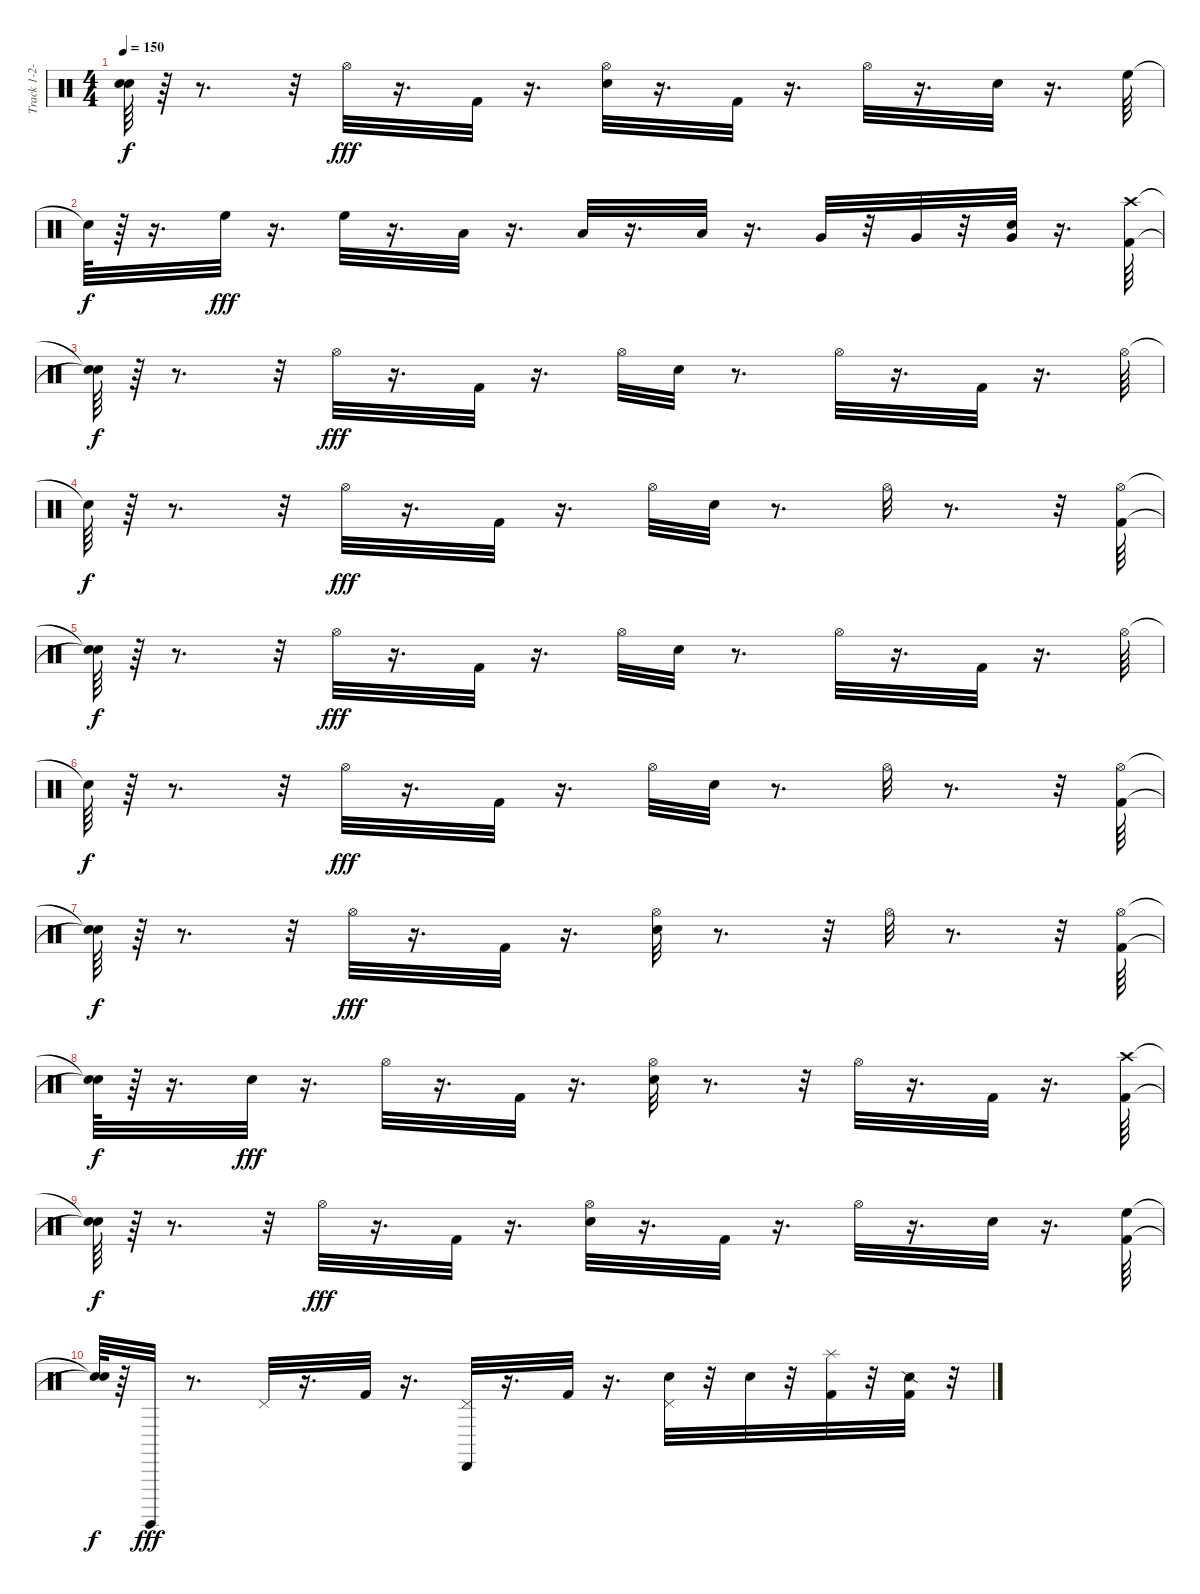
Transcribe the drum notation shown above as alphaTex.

\track ("Track 1-2-3-4-5-6-7-8-9-10-11-12-13-14-1" "Track 1-2-") {instrument percussion}
\staff {score}
\articulation defaults
\ts (4 4)
\tempo 150
\clef neutral
\ks c
("Snare (hit)"{t} "Snare (hit)"{t}).64{dy f} r.64 r.8{d} r.32 "Hi-Hat (open)".32{dy fff} r.16{d} "Kick (hit) 2".32 r.16{d} ("Hi-Hat (open)" "Snare (hit) 2").32 r.16{d} "Kick (hit) 2".32 r.16{d} "Hi-Hat (open)".32 r.16{d} "Electric Snare (hit)".32 r.16{d} "High Floor Tom (hit)".64 |
"Snare (hit)"{t}.64{dy f} r.64 r.16{d} "High Floor Tom (hit)".32{dy fff} r.16{d} "High Floor Tom (hit)".32 r.16{d} "Low Tom (hit)".32 r.16{d} "Low Tom (hit)".32 r.16{d} "Low Tom (hit)".32 r.16{d} "Very Low Tom (hit)".32 r.32 "Very Low Tom (hit)".32 r.32 ("Snare (hit) 2" "Very Low Tom (hit)").32 r.16{d} ("Crash high (hit)" "Kick (hit) 2").64 |
("Snare (hit)"{t} "Snare (hit)"{t}).64{dy f} r.64 r.8{d} r.32 "Hi-Hat (open)".32{dy fff} r.16{d} "Kick (hit) 2".32 r.16{d} "Hi-Hat (open)".32 "Snare (hit) 2".32 r.8{d} "Hi-Hat (open)".32 r.16{d} "Kick (hit) 2".32 r.16{d} "Hi-Hat (open)".64 |
"Snare (hit)"{t}.64{dy f} r.64 r.8{d} r.32 "Hi-Hat (open)".32{dy fff} r.16{d} "Kick (hit) 2".32 r.16{d} "Hi-Hat (open)".32 "Snare (hit) 2".32 r.8{d} "Hi-Hat (open)".32 r.8{d} r.32 ("Hi-Hat (open)" "Kick (hit) 2").64 |
("Snare (hit)"{t} "Snare (hit)"{t}).64{dy f} r.64 r.8{d} r.32 "Hi-Hat (open)".32{dy fff} r.16{d} "Kick (hit) 2".32 r.16{d} "Hi-Hat (open)".32 "Snare (hit) 2".32 r.8{d} "Hi-Hat (open)".32 r.16{d} "Kick (hit) 2".32 r.16{d} "Hi-Hat (open)".64 |
"Snare (hit)"{t}.64{dy f} r.64 r.8{d} r.32 "Hi-Hat (open)".32{dy fff} r.16{d} "Kick (hit) 2".32 r.16{d} "Hi-Hat (open)".32 "Snare (hit) 2".32 r.8{d} "Hi-Hat (open)".32 r.8{d} r.32 ("Hi-Hat (open)" "Kick (hit) 2").64 |
("Snare (hit)"{t} "Snare (hit)"{t}).64{dy f} r.64 r.8{d} r.32 "Hi-Hat (open)".32{dy fff} r.16{d} "Kick (hit) 2".32 r.16{d} ("Hi-Hat (open)" "Snare (hit) 2").32 r.8{d} r.32 "Hi-Hat (open)".32 r.8{d} r.32 ("Hi-Hat (open)" "Kick (hit) 2").64 |
("Snare (hit)"{t} "Snare (hit)"{t}).64{dy f} r.64 r.16{d} "Snare (hit) 2".32{dy fff} r.16{d} "Hi-Hat (open)".32 r.16{d} "Kick (hit) 2".32 r.16{d} ("Snare (hit) 2" "Hi-Hat (open)").32 r.8{d} r.32 "Hi-Hat (open)".32 r.16{d} "Kick (hit) 2".32 r.16{d} ("Crash high (hit)" "Kick (hit) 2").64 |
("Snare (hit)"{t} "Snare (hit)"{t}).64{dy f} r.64 r.8{d} r.32 "Hi-Hat (open)".32{dy fff} r.16{d} "Kick (hit) 2".32 r.16{d} ("Hi-Hat (open)" "Snare (hit) 2").32 r.16{d} "Kick (hit) 2".32 r.16{d} "Hi-Hat (open)".32 r.16{d} "Electric Snare (hit)".32 r.16{d} ("High Floor Tom (hit)" "Kick (hit) 2").64 |
("Snare (hit)"{t} "Snare (hit)"{t}).64{dy f} r.64 "Surdo (hit)".32{dy fff} r.8{d} "Pedal Hi-Hat (hit)".32 r.16{d} "Kick (hit) 2".32 r.16{d} ("Pedal Hi-Hat (hit)" "Cabasa (hit)").32 r.16{d} "Kick (hit) 2".32 r.16{d} ("Snare (hit) 2" "Pedal Hi-Hat (hit)").32 r.32 "Snare (hit) 2".32 r.32 ("Kick (hit) 2" "Splash (hit)").32 r.32 ("Kick (hit) 2" "Snare (side stick) 2").32 r.32
